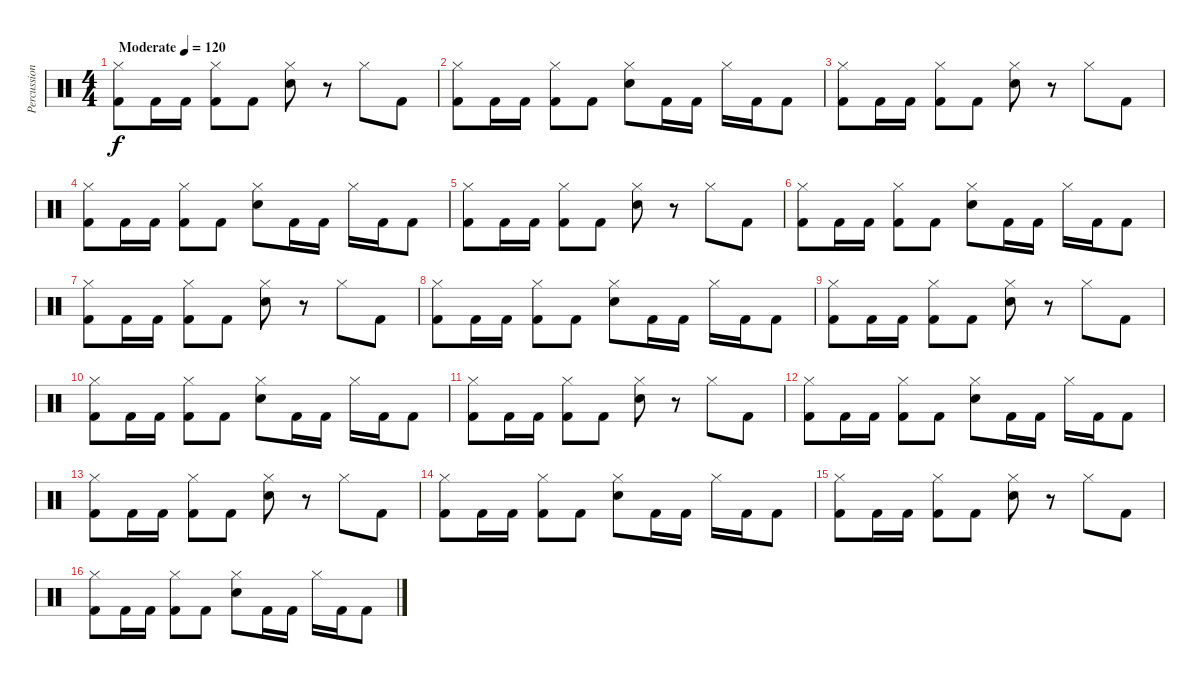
\track ("Percussions" "Percussion") {instrument percussion}
\staff {score}
\articulation defaults
\ts (4 4)
\tempo (120 "Moderate")
\clef neutral
\ks c
("Hi-Hat (closed)" "Kick (hit) 2").8{dy f} "Kick (hit) 2".16 "Kick (hit) 2".16 ("Hi-Hat (closed)" "Kick (hit) 2").8 "Kick (hit) 2".8 ("Hi-Hat (closed)" "Snare (hit) 2").8 r.8 "Hi-Hat (closed)".8 "Kick (hit) 2".8 |
("Hi-Hat (closed)" "Kick (hit) 2").8 "Kick (hit) 2".16 "Kick (hit) 2".16 ("Hi-Hat (closed)" "Kick (hit) 2").8 "Kick (hit) 2".8 ("Hi-Hat (closed)" "Snare (hit) 2").8 "Kick (hit) 2".16 "Kick (hit) 2".16 "Hi-Hat (closed)".16 "Kick (hit) 2".16 "Kick (hit) 2".8 |
("Hi-Hat (closed)" "Kick (hit) 2").8 "Kick (hit) 2".16 "Kick (hit) 2".16 ("Hi-Hat (closed)" "Kick (hit) 2").8 "Kick (hit) 2".8 ("Hi-Hat (closed)" "Snare (hit) 2").8 r.8 "Hi-Hat (closed)".8 "Kick (hit) 2".8 |
("Hi-Hat (closed)" "Kick (hit) 2").8 "Kick (hit) 2".16 "Kick (hit) 2".16 ("Hi-Hat (closed)" "Kick (hit) 2").8 "Kick (hit) 2".8 ("Hi-Hat (closed)" "Snare (hit) 2").8 "Kick (hit) 2".16 "Kick (hit) 2".16 "Hi-Hat (closed)".16 "Kick (hit) 2".16 "Kick (hit) 2".8 |
("Hi-Hat (closed)" "Kick (hit) 2").8 "Kick (hit) 2".16 "Kick (hit) 2".16 ("Hi-Hat (closed)" "Kick (hit) 2").8 "Kick (hit) 2".8 ("Hi-Hat (closed)" "Snare (hit) 2").8 r.8 "Hi-Hat (closed)".8 "Kick (hit) 2".8 |
("Hi-Hat (closed)" "Kick (hit) 2").8 "Kick (hit) 2".16 "Kick (hit) 2".16 ("Hi-Hat (closed)" "Kick (hit) 2").8 "Kick (hit) 2".8 ("Hi-Hat (closed)" "Snare (hit) 2").8 "Kick (hit) 2".16 "Kick (hit) 2".16 "Hi-Hat (closed)".16 "Kick (hit) 2".16 "Kick (hit) 2".8 |
("Hi-Hat (closed)" "Kick (hit) 2").8 "Kick (hit) 2".16 "Kick (hit) 2".16 ("Hi-Hat (closed)" "Kick (hit) 2").8 "Kick (hit) 2".8 ("Hi-Hat (closed)" "Snare (hit) 2").8 r.8 "Hi-Hat (closed)".8 "Kick (hit) 2".8 |
("Hi-Hat (closed)" "Kick (hit) 2").8 "Kick (hit) 2".16 "Kick (hit) 2".16 ("Hi-Hat (closed)" "Kick (hit) 2").8 "Kick (hit) 2".8 ("Hi-Hat (closed)" "Snare (hit) 2").8 "Kick (hit) 2".16 "Kick (hit) 2".16 "Hi-Hat (closed)".16 "Kick (hit) 2".16 "Kick (hit) 2".8 |
("Hi-Hat (closed)" "Kick (hit) 2").8 "Kick (hit) 2".16 "Kick (hit) 2".16 ("Hi-Hat (closed)" "Kick (hit) 2").8 "Kick (hit) 2".8 ("Hi-Hat (closed)" "Snare (hit) 2").8 r.8 "Hi-Hat (closed)".8 "Kick (hit) 2".8 |
("Hi-Hat (closed)" "Kick (hit) 2").8 "Kick (hit) 2".16 "Kick (hit) 2".16 ("Hi-Hat (closed)" "Kick (hit) 2").8 "Kick (hit) 2".8 ("Hi-Hat (closed)" "Snare (hit) 2").8 "Kick (hit) 2".16 "Kick (hit) 2".16 "Hi-Hat (closed)".16 "Kick (hit) 2".16 "Kick (hit) 2".8 |
("Hi-Hat (closed)" "Kick (hit) 2").8 "Kick (hit) 2".16 "Kick (hit) 2".16 ("Hi-Hat (closed)" "Kick (hit) 2").8 "Kick (hit) 2".8 ("Hi-Hat (closed)" "Snare (hit) 2").8 r.8 "Hi-Hat (closed)".8 "Kick (hit) 2".8 |
("Hi-Hat (closed)" "Kick (hit) 2").8 "Kick (hit) 2".16 "Kick (hit) 2".16 ("Hi-Hat (closed)" "Kick (hit) 2").8 "Kick (hit) 2".8 ("Hi-Hat (closed)" "Snare (hit) 2").8 "Kick (hit) 2".16 "Kick (hit) 2".16 "Hi-Hat (closed)".16 "Kick (hit) 2".16 "Kick (hit) 2".8 |
("Hi-Hat (closed)" "Kick (hit) 2").8 "Kick (hit) 2".16 "Kick (hit) 2".16 ("Hi-Hat (closed)" "Kick (hit) 2").8 "Kick (hit) 2".8 ("Hi-Hat (closed)" "Snare (hit) 2").8 r.8 "Hi-Hat (closed)".8 "Kick (hit) 2".8 |
("Hi-Hat (closed)" "Kick (hit) 2").8 "Kick (hit) 2".16 "Kick (hit) 2".16 ("Hi-Hat (closed)" "Kick (hit) 2").8 "Kick (hit) 2".8 ("Hi-Hat (closed)" "Snare (hit) 2").8 "Kick (hit) 2".16 "Kick (hit) 2".16 "Hi-Hat (closed)".16 "Kick (hit) 2".16 "Kick (hit) 2".8 |
("Hi-Hat (closed)" "Kick (hit) 2").8 "Kick (hit) 2".16 "Kick (hit) 2".16 ("Hi-Hat (closed)" "Kick (hit) 2").8 "Kick (hit) 2".8 ("Hi-Hat (closed)" "Snare (hit) 2").8 r.8 "Hi-Hat (closed)".8 "Kick (hit) 2".8 |
("Hi-Hat (closed)" "Kick (hit) 2").8 "Kick (hit) 2".16 "Kick (hit) 2".16 ("Hi-Hat (closed)" "Kick (hit) 2").8 "Kick (hit) 2".8 ("Hi-Hat (closed)" "Snare (hit) 2").8 "Kick (hit) 2".16 "Kick (hit) 2".16 "Hi-Hat (closed)".16 "Kick (hit) 2".16 "Kick (hit) 2".8
